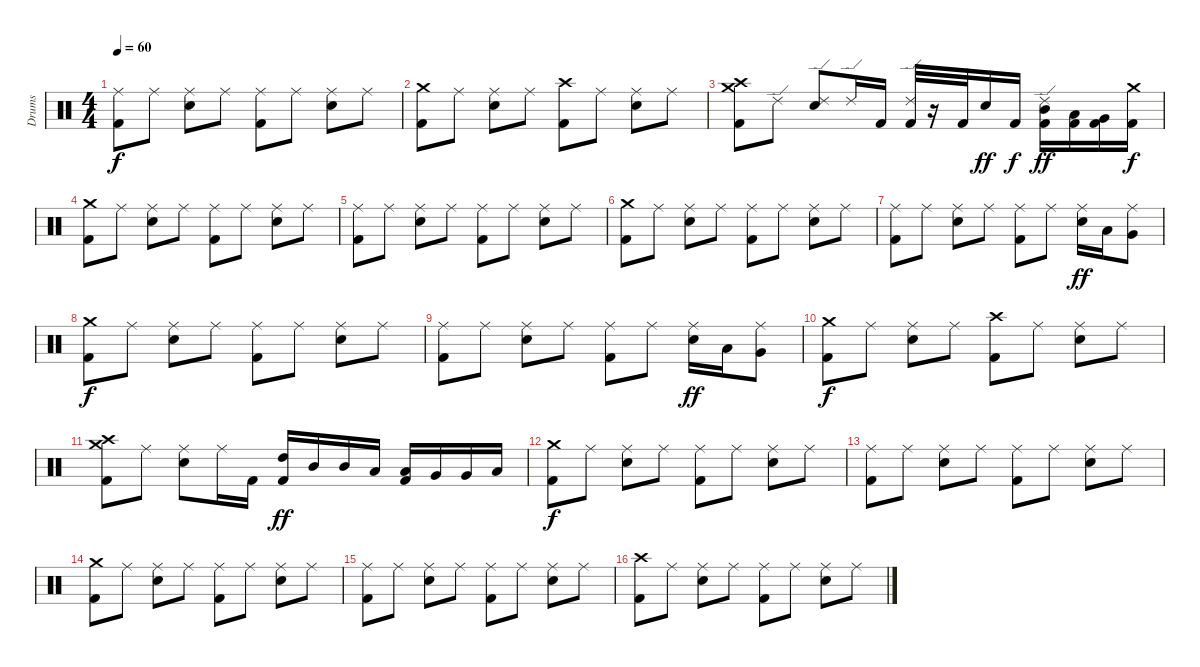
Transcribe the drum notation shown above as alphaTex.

\track ("Drums" "Drums") {instrument percussion}
\staff {score}
\articulation defaults
\ts (4 4)
\tempo 60
\clef neutral
\ks c
("Ride (middle)" "Kick (hit) 2").8{dy f} "Ride (middle)".8 ("Ride (middle)" "Electric Snare (hit)").8 "Ride (middle)".8 ("Ride (middle)" "Kick (hit) 2").8 "Ride (middle)".8 ("Ride (middle)" "Electric Snare (hit)").8 "Ride (middle)".8 |
("Crash medium (hit)" "Kick (hit) 2").8 "Ride (middle)".8 ("Ride (middle)" "Electric Snare (hit)").8 "Ride (middle)".8 ("Crash high (hit)" "Kick (hit) 2").8 "Ride (middle)".8 ("Ride (middle)" "Electric Snare (hit)").8 "Ride (middle)".8 |
("Crash medium (hit)" "Crash high (hit)" "Kick (hit) 2").8 "Ride (edge) 2".8 ("Ride (edge) 2" "Electric Snare (hit)").8 "Ride (edge) 2".16 "Kick (hit) 2".16 ("Ride (edge) 2" "Kick (hit) 2").32 r.16 "Kick (hit) 2".32 "Electric Snare (hit)".16{dy ff} "Kick (hit) 2".16{dy f} ("Ride (edge) 2" "Mid Tom (hit)" "Kick (hit) 2").16{dy ff} ("Low Tom (hit)" "Kick (hit) 2").16 ("Very Low Tom (hit)" "Kick (hit) 2").16 ("Crash medium (hit)" "Kick (hit) 2").16{dy f} |
("Crash medium (hit)" "Kick (hit) 2").8 "Ride (middle)".8 ("Ride (middle)" "Electric Snare (hit)").8 "Ride (middle)".8 ("Ride (middle)" "Kick (hit) 2").8 "Ride (middle)".8 ("Ride (middle)" "Electric Snare (hit)").8 "Ride (middle)".8 |
("Ride (middle)" "Kick (hit) 2").8 "Ride (middle)".8 ("Ride (middle)" "Electric Snare (hit)").8 "Ride (middle)".8 ("Ride (middle)" "Kick (hit) 2").8 "Ride (middle)".8 ("Ride (middle)" "Electric Snare (hit)").8 "Ride (middle)".8 |
("Crash medium (hit)" "Kick (hit) 2").8 "Ride (middle)".8 ("Ride (middle)" "Electric Snare (hit)").8 "Ride (middle)".8 ("Ride (middle)" "Kick (hit) 2").8 "Ride (middle)".8 ("Ride (middle)" "Electric Snare (hit)").8 "Ride (middle)".8 |
("Ride (middle)" "Kick (hit) 2").8 "Ride (middle)".8 ("Ride (middle)" "Electric Snare (hit)").8 "Ride (middle)".8 ("Ride (middle)" "Kick (hit) 2").8 "Ride (middle)".8 ("Ride (middle)" "Electric Snare (hit)").16{dy ff} "Low Tom (hit)".16 ("Ride (middle)" "Very Low Tom (hit)").8 |
("Crash medium (hit)" "Kick (hit) 2").8{dy f} "Ride (middle)".8 ("Ride (middle)" "Electric Snare (hit)").8 "Ride (middle)".8 ("Ride (middle)" "Kick (hit) 2").8 "Ride (middle)".8 ("Ride (middle)" "Electric Snare (hit)").8 "Ride (middle)".8 |
("Ride (middle)" "Kick (hit) 2").8 "Ride (middle)".8 ("Ride (middle)" "Electric Snare (hit)").8 "Ride (middle)".8 ("Ride (middle)" "Kick (hit) 2").8 "Ride (middle)".8 ("Ride (middle)" "Electric Snare (hit)").16{dy ff} "Low Tom (hit)".16 ("Ride (middle)" "Very Low Tom (hit)").8 |
("Crash medium (hit)" "Kick (hit) 2").8{dy f} "Ride (middle)".8 ("Ride (middle)" "Electric Snare (hit)").8 "Ride (middle)".8 ("Crash high (hit)" "Kick (hit) 2").8 "Ride (middle)".8 ("Ride (middle)" "Electric Snare (hit)").8 "Ride (middle)".8 |
("Crash medium (hit)" "Crash high (hit)" "Kick (hit) 2").8 "Ride (middle)".8 ("Ride (middle)" "Electric Snare (hit)").8 "Ride (middle)".16 "Kick (hit) 2".16 ("High Tom (hit)" "Kick (hit) 2").16{dy ff} "Mid Tom (hit)".16 "Mid Tom (hit)".16 "Low Tom (hit)".16 ("Low Tom (hit)" "Kick (hit) 2").16 "Very Low Tom (hit)".16 "Very Low Tom (hit)".16 "Low Floor Tom (hit)".16 |
("Crash medium (hit)" "Kick (hit) 2").8{dy f} "Ride (middle)".8 ("Ride (middle)" "Electric Snare (hit)").8 "Ride (middle)".8 ("Ride (middle)" "Kick (hit) 2").8 "Ride (middle)".8 ("Ride (middle)" "Electric Snare (hit)").8 "Ride (middle)".8 |
("Ride (middle)" "Kick (hit) 2").8 "Ride (middle)".8 ("Ride (middle)" "Electric Snare (hit)").8 "Ride (middle)".8 ("Ride (middle)" "Kick (hit) 2").8 "Ride (middle)".8 ("Ride (middle)" "Electric Snare (hit)").8 "Ride (middle)".8 |
("Crash medium (hit)" "Kick (hit) 2").8 "Ride (middle)".8 ("Ride (middle)" "Electric Snare (hit)").8 "Ride (middle)".8 ("Ride (middle)" "Kick (hit) 2").8 "Ride (middle)".8 ("Ride (middle)" "Electric Snare (hit)").8 "Ride (middle)".8 |
("Ride (middle)" "Kick (hit) 2").8 "Ride (middle)".8 ("Ride (middle)" "Electric Snare (hit)").8 "Ride (middle)".8 ("Ride (middle)" "Kick (hit) 2").8 "Ride (middle)".8 ("Ride (middle)" "Electric Snare (hit)").8 "Ride (middle)".8 |
("Crash high (hit)" "Kick (hit) 2").8 "Ride (middle)".8 ("Ride (middle)" "Electric Snare (hit)").8 "Ride (middle)".8 ("Ride (middle)" "Kick (hit) 2").8 "Ride (middle)".8 ("Ride (middle)" "Electric Snare (hit)").8 "Ride (middle)".8
